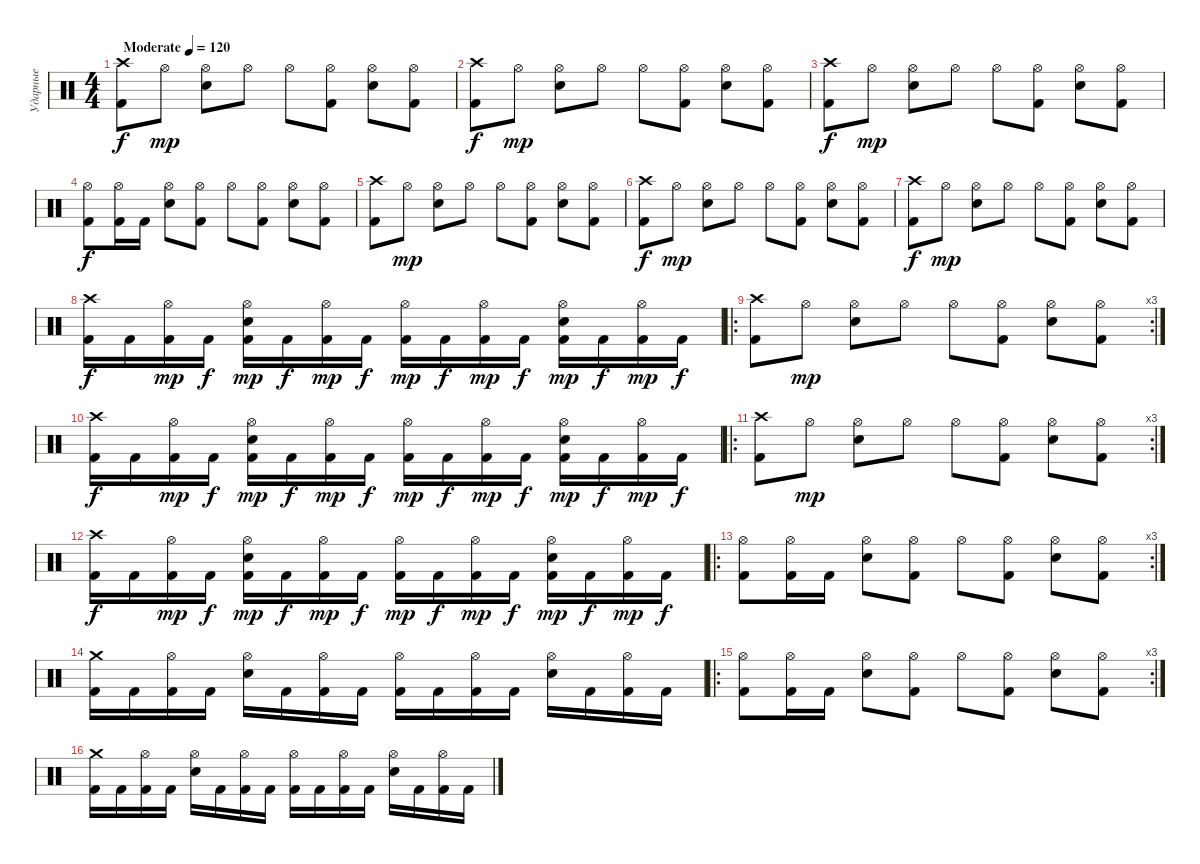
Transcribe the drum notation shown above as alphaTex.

\track ("Ударные" "Ударные") {instrument percussion}
\staff {score}
\articulation defaults
\ts (4 4)
\tempo (120 "Moderate")
\clef neutral
\ks c
("Crash high (hit)" "Kick (hit) 2").8{dy f} "Hi-Hat (open)".8{dy mp} ("Hi-Hat (open)" "Electric Snare (hit)").8 "Hi-Hat (open)".8 "Hi-Hat (open)".8 ("Hi-Hat (open)" "Kick (hit) 2").8 ("Hi-Hat (open)" "Electric Snare (hit)").8 ("Hi-Hat (open)" "Kick (hit) 2").8 |
("Crash high (hit)" "Kick (hit) 2").8{dy f} "Hi-Hat (open)".8{dy mp} ("Hi-Hat (open)" "Electric Snare (hit)").8 "Hi-Hat (open)".8 "Hi-Hat (open)".8 ("Hi-Hat (open)" "Kick (hit) 2").8 ("Hi-Hat (open)" "Electric Snare (hit)").8 ("Hi-Hat (open)" "Kick (hit) 2").8 |
("Crash high (hit)" "Kick (hit) 2").8{dy f} "Hi-Hat (open)".8{dy mp} ("Hi-Hat (open)" "Electric Snare (hit)").8 "Hi-Hat (open)".8 "Hi-Hat (open)".8 ("Hi-Hat (open)" "Kick (hit) 2").8 ("Hi-Hat (open)" "Electric Snare (hit)").8 ("Hi-Hat (open)" "Kick (hit) 2").8 |
("Hi-Hat (open)" "Kick (hit) 2").8{dy f} ("Hi-Hat (open)" "Kick (hit) 2").16 "Kick (hit) 2".16 ("Hi-Hat (open)" "Electric Snare (hit)").8 ("Hi-Hat (open)" "Kick (hit) 2").8 "Hi-Hat (open)".8 ("Hi-Hat (open)" "Kick (hit) 2").8 ("Hi-Hat (open)" "Electric Snare (hit)").8 ("Hi-Hat (open)" "Kick (hit) 2").8 |
("Crash high (hit)" "Kick (hit) 2").8 "Hi-Hat (open)".8{dy mp} ("Hi-Hat (open)" "Electric Snare (hit)").8 "Hi-Hat (open)".8 "Hi-Hat (open)".8 ("Hi-Hat (open)" "Kick (hit) 2").8 ("Hi-Hat (open)" "Electric Snare (hit)").8 ("Hi-Hat (open)" "Kick (hit) 2").8 |
("Crash high (hit)" "Kick (hit) 2").8{dy f} "Hi-Hat (open)".8{dy mp} ("Hi-Hat (open)" "Electric Snare (hit)").8 "Hi-Hat (open)".8 "Hi-Hat (open)".8 ("Hi-Hat (open)" "Kick (hit) 2").8 ("Hi-Hat (open)" "Electric Snare (hit)").8 ("Hi-Hat (open)" "Kick (hit) 2").8 |
("Crash high (hit)" "Kick (hit) 2").8{dy f} "Hi-Hat (open)".8{dy mp} ("Hi-Hat (open)" "Electric Snare (hit)").8 "Hi-Hat (open)".8 "Hi-Hat (open)".8 ("Hi-Hat (open)" "Kick (hit) 2").8 ("Hi-Hat (open)" "Electric Snare (hit)").8 ("Hi-Hat (open)" "Kick (hit) 2").8 |
("Crash high (hit)" "Kick (hit) 2").16{dy f} "Kick (hit) 2".16 ("Hi-Hat (open)" "Kick (hit) 2").16{dy mp} "Kick (hit) 2".16{dy f} ("Hi-Hat (open)" "Electric Snare (hit)" "Kick (hit) 2").16{dy mp} "Kick (hit) 2".16{dy f} ("Hi-Hat (open)" "Kick (hit) 2").16{dy mp} "Kick (hit) 2".16{dy f} ("Hi-Hat (open)" "Kick (hit) 2").16{dy mp} "Kick (hit) 2".16{dy f} ("Hi-Hat (open)" "Kick (hit) 2").16{dy mp} "Kick (hit) 2".16{dy f} ("Hi-Hat (open)" "Electric Snare (hit)" "Kick (hit) 2").16{dy mp} "Kick (hit) 2".16{dy f} ("Hi-Hat (open)" "Kick (hit) 2").16{dy mp} "Kick (hit) 2".16{dy f} |
\ro
\rc 3
("Crash high (hit)" "Kick (hit) 2").8 "Hi-Hat (open)".8{dy mp} ("Hi-Hat (open)" "Electric Snare (hit)").8 "Hi-Hat (open)".8 "Hi-Hat (open)".8 ("Hi-Hat (open)" "Kick (hit) 2").8 ("Hi-Hat (open)" "Electric Snare (hit)").8 ("Hi-Hat (open)" "Kick (hit) 2").8 |
("Crash high (hit)" "Kick (hit) 2").16{dy f} "Kick (hit) 2".16 ("Hi-Hat (open)" "Kick (hit) 2").16{dy mp} "Kick (hit) 2".16{dy f} ("Hi-Hat (open)" "Electric Snare (hit)" "Kick (hit) 2").16{dy mp} "Kick (hit) 2".16{dy f} ("Hi-Hat (open)" "Kick (hit) 2").16{dy mp} "Kick (hit) 2".16{dy f} ("Hi-Hat (open)" "Kick (hit) 2").16{dy mp} "Kick (hit) 2".16{dy f} ("Hi-Hat (open)" "Kick (hit) 2").16{dy mp} "Kick (hit) 2".16{dy f} ("Hi-Hat (open)" "Electric Snare (hit)" "Kick (hit) 2").16{dy mp} "Kick (hit) 2".16{dy f} ("Hi-Hat (open)" "Kick (hit) 2").16{dy mp} "Kick (hit) 2".16{dy f} |
\ro
\rc 3
("Crash high (hit)" "Kick (hit) 2").8 "Hi-Hat (open)".8{dy mp} ("Hi-Hat (open)" "Electric Snare (hit)").8 "Hi-Hat (open)".8 "Hi-Hat (open)".8 ("Hi-Hat (open)" "Kick (hit) 2").8 ("Hi-Hat (open)" "Electric Snare (hit)").8 ("Hi-Hat (open)" "Kick (hit) 2").8 |
("Crash high (hit)" "Kick (hit) 2").16{dy f} "Kick (hit) 2".16 ("Hi-Hat (open)" "Kick (hit) 2").16{dy mp} "Kick (hit) 2".16{dy f} ("Hi-Hat (open)" "Electric Snare (hit)" "Kick (hit) 2").16{dy mp} "Kick (hit) 2".16{dy f} ("Hi-Hat (open)" "Kick (hit) 2").16{dy mp} "Kick (hit) 2".16{dy f} ("Hi-Hat (open)" "Kick (hit) 2").16{dy mp} "Kick (hit) 2".16{dy f} ("Hi-Hat (open)" "Kick (hit) 2").16{dy mp} "Kick (hit) 2".16{dy f} ("Hi-Hat (open)" "Electric Snare (hit)" "Kick (hit) 2").16{dy mp} "Kick (hit) 2".16{dy f} ("Hi-Hat (open)" "Kick (hit) 2").16{dy mp} "Kick (hit) 2".16{dy f} |
\ro
\rc 3
("Hi-Hat (open)" "Kick (hit) 2").8 ("Hi-Hat (open)" "Kick (hit) 2").16 "Kick (hit) 2".16 ("Hi-Hat (open)" "Electric Snare (hit)").8 ("Hi-Hat (open)" "Kick (hit) 2").8 "Hi-Hat (open)".8 ("Hi-Hat (open)" "Kick (hit) 2").8 ("Hi-Hat (open)" "Electric Snare (hit)").8 ("Hi-Hat (open)" "Kick (hit) 2").8 |
("Crash medium (hit)" "Kick (hit) 2").16 "Kick (hit) 2".16 ("Hi-Hat (open)" "Kick (hit) 2").16 "Kick (hit) 2".16 ("Hi-Hat (open)" "Electric Snare (hit)").16 "Kick (hit) 2".16 ("Hi-Hat (open)" "Kick (hit) 2").16 "Kick (hit) 2".16 ("Hi-Hat (open)" "Kick (hit) 2").16 "Kick (hit) 2".16 ("Hi-Hat (open)" "Kick (hit) 2").16 "Kick (hit) 2".16 ("Hi-Hat (open)" "Electric Snare (hit)").16 "Kick (hit) 2".16 ("Hi-Hat (open)" "Kick (hit) 2").16 "Kick (hit) 2".16 |
\ro
\rc 3
("Hi-Hat (open)" "Kick (hit) 2").8 ("Hi-Hat (open)" "Kick (hit) 2").16 "Kick (hit) 2".16 ("Hi-Hat (open)" "Electric Snare (hit)").8 ("Hi-Hat (open)" "Kick (hit) 2").8 "Hi-Hat (open)".8 ("Hi-Hat (open)" "Kick (hit) 2").8 ("Hi-Hat (open)" "Electric Snare (hit)").8 ("Hi-Hat (open)" "Kick (hit) 2").8 |
("Crash medium (hit)" "Kick (hit) 2").16 "Kick (hit) 2".16 ("Hi-Hat (open)" "Kick (hit) 2").16 "Kick (hit) 2".16 ("Hi-Hat (open)" "Electric Snare (hit)").16 "Kick (hit) 2".16 ("Hi-Hat (open)" "Kick (hit) 2").16 "Kick (hit) 2".16 ("Hi-Hat (open)" "Kick (hit) 2").16 "Kick (hit) 2".16 ("Hi-Hat (open)" "Kick (hit) 2").16 "Kick (hit) 2".16 ("Hi-Hat (open)" "Electric Snare (hit)").16 "Kick (hit) 2".16 ("Hi-Hat (open)" "Kick (hit) 2").16 "Kick (hit) 2".16
